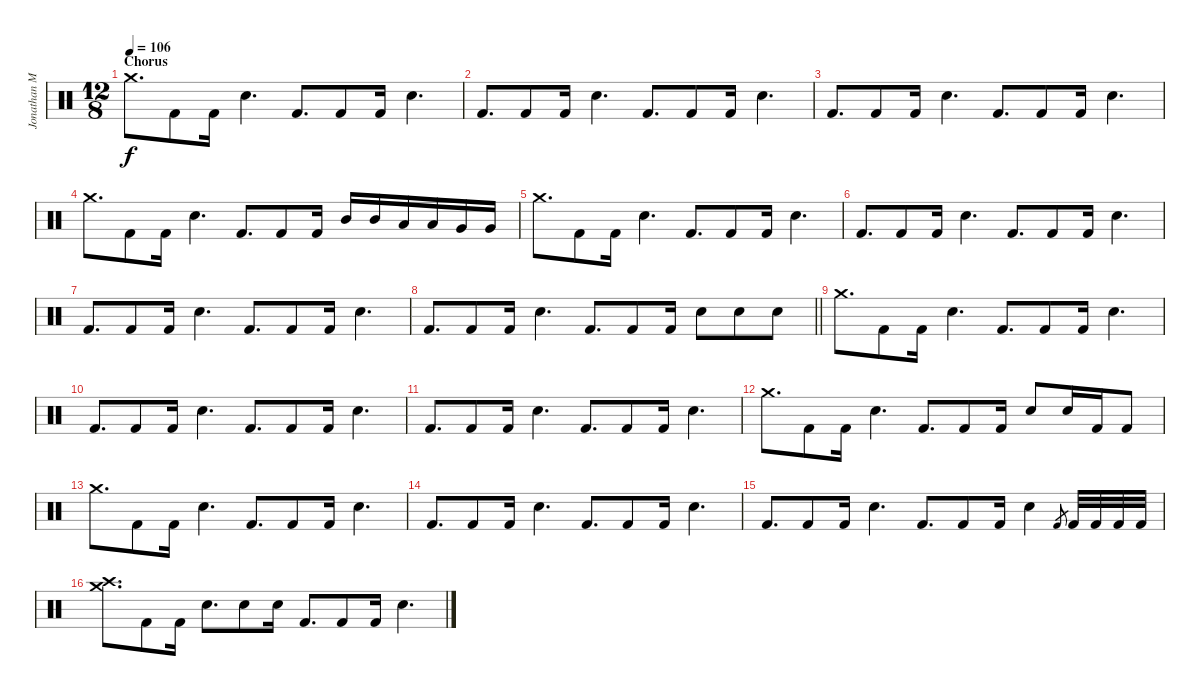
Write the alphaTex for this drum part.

\track ("Jonathan Mover (Studio Drummer)" "Jonathan M") {instrument percussion}
\staff {score}
\articulation defaults
\ts (12 8)
\section ("" "Chorus")
\tempo 106
\clef neutral
\ks c "Crash medium (hit)".8{d dy f} "Kick (hit) 2".8 "Kick (hit) 2".16 "Electric Snare (hit)".4{d} "Kick (hit) 2".8{d} "Kick (hit) 2".8 "Kick (hit) 2".16 "Electric Snare (hit)".4{d}
|
"Kick (hit) 2".8{d} "Kick (hit) 2".8 "Kick (hit) 2".16 "Electric Snare (hit)".4{d} "Kick (hit) 2".8{d} "Kick (hit) 2".8 "Kick (hit) 2".16 "Electric Snare (hit)".4{d} |
"Kick (hit) 2".8{d} "Kick (hit) 2".8 "Kick (hit) 2".16 "Electric Snare (hit)".4{d} "Kick (hit) 2".8{d} "Kick (hit) 2".8 "Kick (hit) 2".16 "Electric Snare (hit)".4{d} |
"Crash medium (hit)".8{d} "Kick (hit) 2".8 "Kick (hit) 2".16 "Electric Snare (hit)".4{d} "Kick (hit) 2".8{d} "Kick (hit) 2".8 "Kick (hit) 2".16 "Mid Tom (hit)".16 "Mid Tom (hit)".16 "Low Tom (hit)".16 "Low Tom (hit)".16 "Very Low Tom (hit)".16 "Very Low Tom (hit)".16 |
"Crash medium (hit)".8{d} "Kick (hit) 2".8 "Kick (hit) 2".16 "Electric Snare (hit)".4{d} "Kick (hit) 2".8{d} "Kick (hit) 2".8 "Kick (hit) 2".16 "Electric Snare (hit)".4{d} |
"Kick (hit) 2".8{d} "Kick (hit) 2".8 "Kick (hit) 2".16 "Electric Snare (hit)".4{d} "Kick (hit) 2".8{d} "Kick (hit) 2".8 "Kick (hit) 2".16 "Electric Snare (hit)".4{d} |
"Kick (hit) 2".8{d} "Kick (hit) 2".8 "Kick (hit) 2".16 "Electric Snare (hit)".4{d} "Kick (hit) 2".8{d} "Kick (hit) 2".8 "Kick (hit) 2".16 "Electric Snare (hit)".4{d} |
\barLineRight lightlight "Kick (hit) 2".8{d} "Kick (hit) 2".8 "Kick (hit) 2".16 "Electric Snare (hit)".4{d} "Kick (hit) 2".8{d} "Kick (hit) 2".8 "Kick (hit) 2".16 "Electric Snare (hit)".8 "Electric Snare (hit)".8 "Electric Snare (hit)".8
|
"Crash medium (hit)".8{d} "Kick (hit) 2".8 "Kick (hit) 2".16 "Electric Snare (hit)".4{d} "Kick (hit) 2".8{d} "Kick (hit) 2".8 "Kick (hit) 2".16 "Electric Snare (hit)".4{d} |
"Kick (hit) 2".8{d} "Kick (hit) 2".8 "Kick (hit) 2".16 "Electric Snare (hit)".4{d} "Kick (hit) 2".8{d} "Kick (hit) 2".8 "Kick (hit) 2".16 "Electric Snare (hit)".4{d} |
"Kick (hit) 2".8{d} "Kick (hit) 2".8 "Kick (hit) 2".16 "Electric Snare (hit)".4{d} "Kick (hit) 2".8{d} "Kick (hit) 2".8 "Kick (hit) 2".16 "Electric Snare (hit)".4{d} |
"Crash medium (hit)".8{d} "Kick (hit) 2".8 "Kick (hit) 2".16 "Electric Snare (hit)".4{d} "Kick (hit) 2".8{d} "Kick (hit) 2".8 "Kick (hit) 2".16 "Electric Snare (hit)".8 "Electric Snare (hit)".16 "Kick (hit) 2".16 "Kick (hit) 2".8 |
"Crash medium (hit)".8{d} "Kick (hit) 2".8 "Kick (hit) 2".16 "Electric Snare (hit)".4{d} "Kick (hit) 2".8{d} "Kick (hit) 2".8 "Kick (hit) 2".16 "Electric Snare (hit)".4{d} |
"Kick (hit) 2".8{d} "Kick (hit) 2".8 "Kick (hit) 2".16 "Electric Snare (hit)".4{d} "Kick (hit) 2".8{d} "Kick (hit) 2".8 "Kick (hit) 2".16 "Electric Snare (hit)".4{d} |
"Kick (hit) 2".8{d} "Kick (hit) 2".8 "Kick (hit) 2".16 "Electric Snare (hit)".4{d} "Kick (hit) 2".8{d} "Kick (hit) 2".8 "Kick (hit) 2".16 "Electric Snare (hit)".4 "Kick (hit) 2".8{gr} "Kick (hit) 2".32 "Kick (hit) 2".32 "Kick (hit) 2".32 "Kick (hit) 2".32 |
("Crash high (hit)" "Crash medium (hit)").8{d} "Kick (hit) 2".8 "Kick (hit) 2".16 "Electric Snare (hit)".8{d} "Electric Snare (hit)".8 "Electric Snare (hit)".16 "Kick (hit) 2".8{d} "Kick (hit) 2".8 "Kick (hit) 2".16 "Electric Snare (hit)".4{d}
